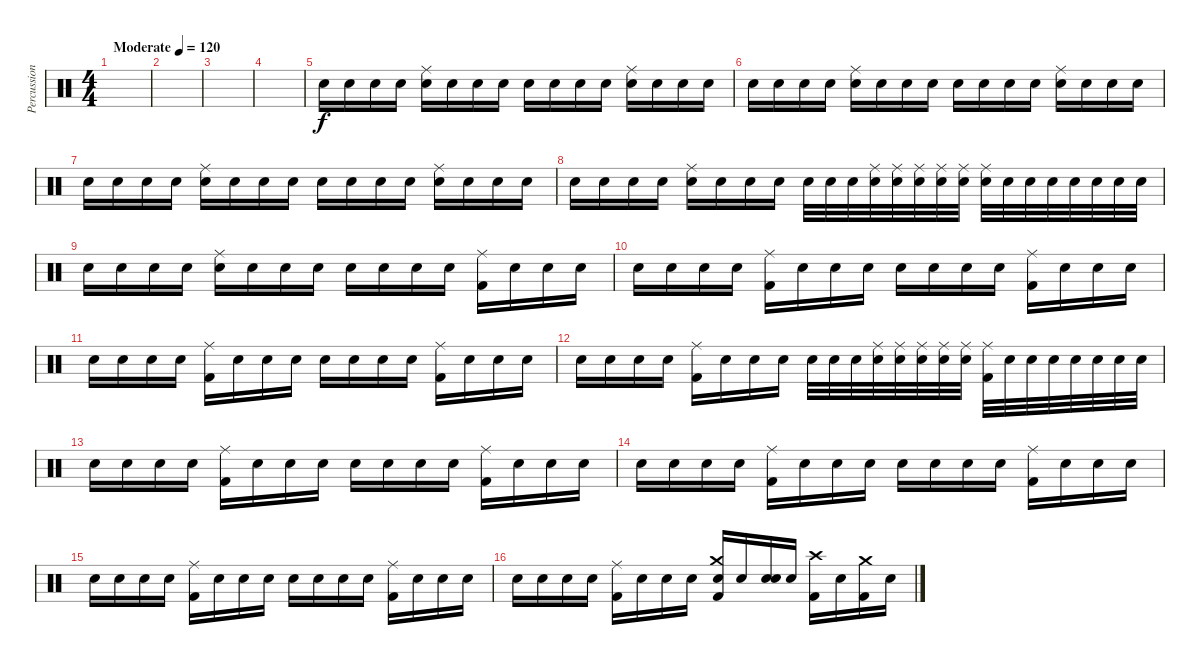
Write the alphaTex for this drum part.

\track ("Percussion" "Percussion") {instrument percussion}
\staff {score}
\articulation defaults
\ts (4 4)
\tempo (120 "Moderate")
\clef neutral
\ks c
|
|
|
|
"Snare (hit)".16 "Snare (hit)".16 "Snare (hit)".16 "Snare (hit)".16 ("Ride (middle)" "Snare (hit)").16 "Snare (hit)".16 "Snare (hit)".16 "Snare (hit)".16 "Snare (hit)".16 "Snare (hit)".16 "Snare (hit)".16 "Snare (hit)".16 ("Ride (middle)" "Snare (hit)").16 "Snare (hit)".16 "Snare (hit)".16 "Snare (hit)".16 |
"Snare (hit)".16 "Snare (hit)".16 "Snare (hit)".16 "Snare (hit)".16 ("Ride (middle)" "Snare (hit)").16 "Snare (hit)".16 "Snare (hit)".16 "Snare (hit)".16 "Snare (hit)".16 "Snare (hit)".16 "Snare (hit)".16 "Snare (hit)".16 ("Ride (middle)" "Snare (hit)").16 "Snare (hit)".16 "Snare (hit)".16 "Snare (hit)".16 |
"Snare (hit)".16 "Snare (hit)".16 "Snare (hit)".16 "Snare (hit)".16 ("Ride (middle)" "Snare (hit)").16 "Snare (hit)".16 "Snare (hit)".16 "Snare (hit)".16 "Snare (hit)".16 "Snare (hit)".16 "Snare (hit)".16 "Snare (hit)".16 ("Ride (middle)" "Snare (hit)").16 "Snare (hit)".16 "Snare (hit)".16 "Snare (hit)".16 |
"Snare (hit)".16 "Snare (hit)".16 "Snare (hit)".16 "Snare (hit)".16 ("Ride (middle)" "Snare (hit)").16 "Snare (hit)".16 "Snare (hit)".16 "Snare (hit)".16 "Snare (hit)".32 "Snare (hit)".32 "Snare (hit)".32 ("Ride (middle)" "Snare (hit)").32 ("Ride (middle)" "Snare (hit)").32 ("Ride (middle)" "Snare (hit)").32 ("Ride (middle)" "Snare (hit)").32 ("Ride (middle)" "Snare (hit)").32 ("Ride (middle)" "Snare (hit)").32 "Snare (hit)".32 "Snare (hit)".32 "Snare (hit)".32 "Snare (hit)".32 "Snare (hit)".32 "Snare (hit)".32 "Snare (hit)".32 |
"Snare (hit)".16 "Snare (hit)".16 "Snare (hit)".16 "Snare (hit)".16 ("Ride (middle)" "Snare (hit)").16 "Snare (hit)".16 "Snare (hit)".16 "Snare (hit)".16 "Snare (hit)".16 "Snare (hit)".16 "Snare (hit)".16 "Snare (hit)".16 ("Ride (middle)" "Kick (hit) 2").16 "Snare (hit)".16 "Snare (hit)".16 "Snare (hit)".16 |
"Snare (hit)".16 "Snare (hit)".16 "Snare (hit)".16 "Snare (hit)".16 ("Ride (middle)" "Kick (hit) 2").16 "Snare (hit)".16 "Snare (hit)".16 "Snare (hit)".16 "Snare (hit)".16 "Snare (hit)".16 "Snare (hit)".16 "Snare (hit)".16 ("Ride (middle)" "Kick (hit) 2").16 "Snare (hit)".16 "Snare (hit)".16 "Snare (hit)".16 |
"Snare (hit)".16 "Snare (hit)".16 "Snare (hit)".16 "Snare (hit)".16 ("Ride (middle)" "Kick (hit) 2").16 "Snare (hit)".16 "Snare (hit)".16 "Snare (hit)".16 "Snare (hit)".16 "Snare (hit)".16 "Snare (hit)".16 "Snare (hit)".16 ("Ride (middle)" "Kick (hit) 2").16 "Snare (hit)".16 "Snare (hit)".16 "Snare (hit)".16 |
"Snare (hit)".16 "Snare (hit)".16 "Snare (hit)".16 "Snare (hit)".16 ("Ride (middle)" "Kick (hit) 2").16 "Snare (hit)".16 "Snare (hit)".16 "Snare (hit)".16 "Snare (hit)".32 "Snare (hit)".32 "Snare (hit)".32 ("Ride (middle)" "Snare (hit)").32 ("Ride (middle)" "Snare (hit)").32 ("Ride (middle)" "Snare (hit)").32 ("Ride (middle)" "Snare (hit)").32 ("Ride (middle)" "Snare (hit)").32 ("Ride (middle)" "Kick (hit) 2").32 "Snare (hit)".32 "Snare (hit)".32 "Snare (hit)".32 "Snare (hit)".32 "Snare (hit)".32 "Snare (hit)".32 "Snare (hit)".32 |
"Snare (hit)".16 "Snare (hit)".16 "Snare (hit)".16 "Snare (hit)".16 ("Ride (middle)" "Kick (hit) 2").16 "Snare (hit)".16 "Snare (hit)".16 "Snare (hit)".16 "Snare (hit)".16 "Snare (hit)".16 "Snare (hit)".16 "Snare (hit)".16 ("Ride (middle)" "Kick (hit) 2").16 "Snare (hit)".16 "Snare (hit)".16 "Snare (hit)".16 |
"Snare (hit)".16 "Snare (hit)".16 "Snare (hit)".16 "Snare (hit)".16 ("Ride (middle)" "Kick (hit) 2").16 "Snare (hit)".16 "Snare (hit)".16 "Snare (hit)".16 "Snare (hit)".16 "Snare (hit)".16 "Snare (hit)".16 "Snare (hit)".16 ("Ride (middle)" "Kick (hit) 2").16 "Snare (hit)".16 "Snare (hit)".16 "Snare (hit)".16 |
"Snare (hit)".16 "Snare (hit)".16 "Snare (hit)".16 "Snare (hit)".16 ("Ride (middle)" "Kick (hit) 2").16 "Snare (hit)".16 "Snare (hit)".16 "Snare (hit)".16 "Snare (hit)".16 "Snare (hit)".16 "Snare (hit)".16 "Snare (hit)".16 ("Ride (middle)" "Kick (hit) 2").16 "Snare (hit)".16 "Snare (hit)".16 "Snare (hit)".16 |
"Snare (hit)".16 "Snare (hit)".16 "Snare (hit)".16 "Snare (hit)".16 ("Ride (middle)" "Kick (hit) 2").16 "Snare (hit)".16 "Snare (hit)".16 "Snare (hit)".16 ("Crash medium (hit)" "Electric Snare (hit)" "Kick (hit) 2").16 "Snare (hit)".16 ("Electric Snare (hit)" "Snare (hit)").16 "Snare (hit)".16 ("Crash high (hit)" "Kick (hit) 2").16 "Snare (hit)".16 ("Crash medium (hit)" "Kick (hit) 2").16 "Snare (hit)".16
